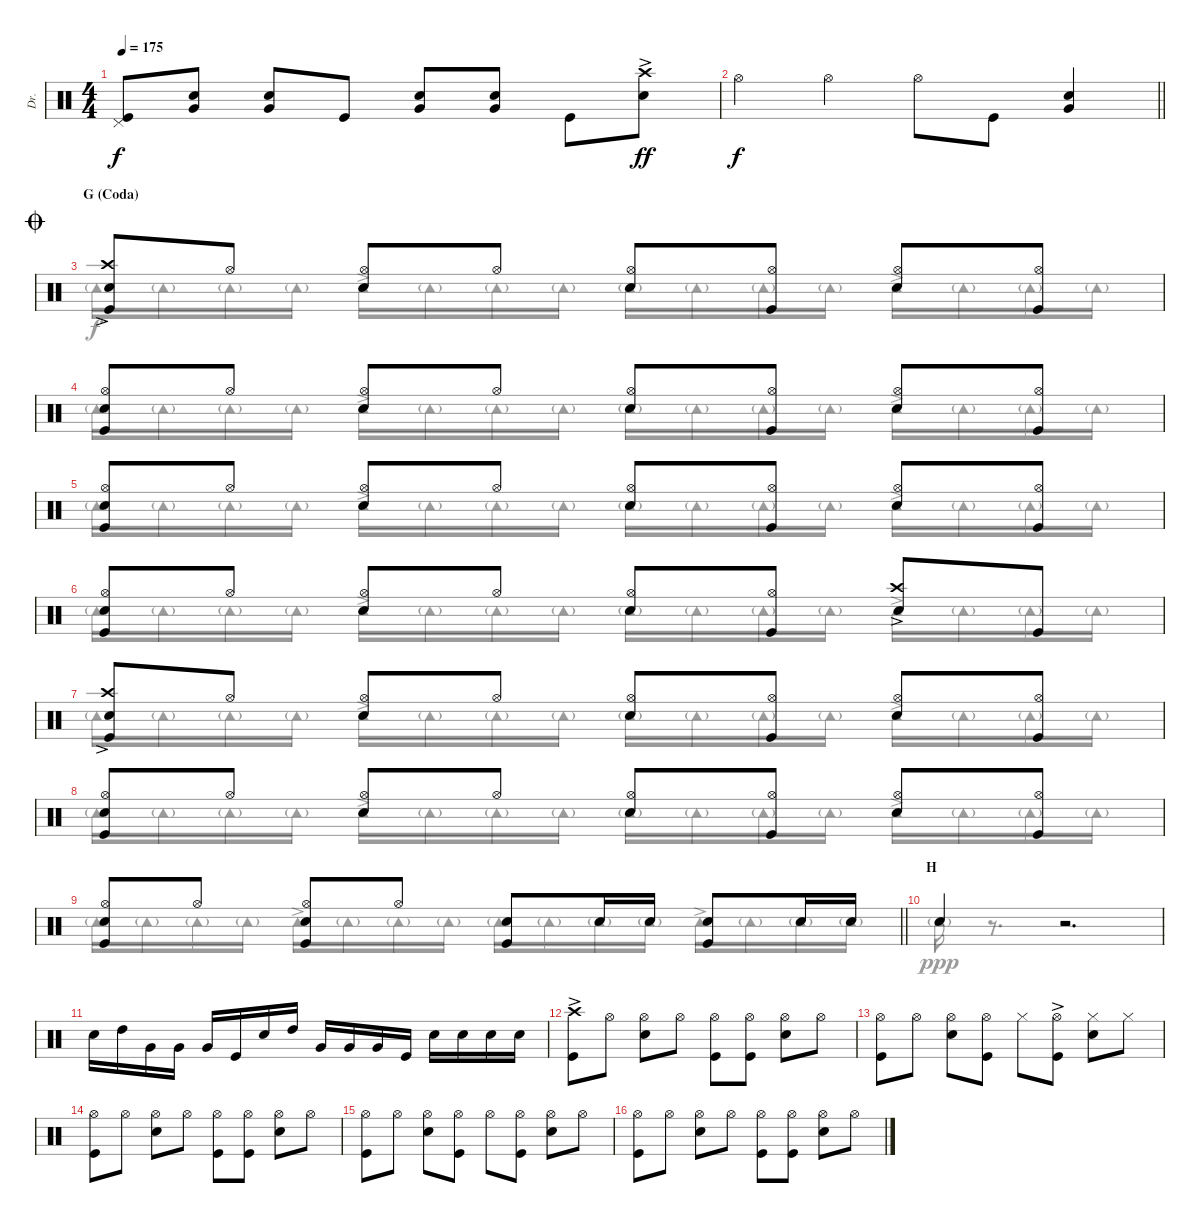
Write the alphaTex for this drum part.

\track ("Dr." "Dr.") {instrument percussion}
\staff {score}
\articulation defaults
\voice
\ts (4 4)
\tempo 175
\clef neutral
\ks c
("Pedal Hi-Hat (hit)" "Kick (hit)").8{dy f} ("Very Low Tom (hit)" "Snare (hit) 2").8 ("Very Low Tom (hit)" "Snare (hit) 2").8 "Kick (hit)".8 ("Very Low Tom (hit)" "Snare (hit) 2").8 ("Very Low Tom (hit)" "Snare (hit) 2").8 "Kick (hit)".8 ("Crash high (hit)"{ac} "Snare (hit) 2"{ac}).8{dy ff} |
\barLineRight lightlight "Hi-Hat (open)".4{dy f} "Hi-Hat (open)".4 "Hi-Hat (open)".8 "Kick (hit)".8
("Very Low Tom (hit)" "Snare (hit) 2").4 |
\section ("" "G (Coda)")
\jump coda
("Crash high (hit)"{ac} "Snare (hit) 2"{ac} "Kick (hit)"{ac}).8 "Hi-Hat (open)".8 ("Hi-Hat (open)" "Snare (hit) 2").8 "Hi-Hat (open)".8 ("Hi-Hat (open)" "Snare (hit) 2").8 ("Hi-Hat (open)" "Kick (hit)").8 ("Hi-Hat (open)" "Snare (hit) 2").8 ("Hi-Hat (open)" "Kick (hit)").8 |
("Hi-Hat (open)" "Snare (hit) 2" "Kick (hit)").8 "Hi-Hat (open)".8 ("Hi-Hat (open)" "Snare (hit) 2").8 "Hi-Hat (open)".8 ("Hi-Hat (open)" "Snare (hit) 2").8 ("Hi-Hat (open)" "Kick (hit)").8 ("Hi-Hat (open)" "Snare (hit) 2").8 ("Hi-Hat (open)" "Kick (hit)").8 |
("Hi-Hat (open)" "Snare (hit) 2" "Kick (hit)").8 "Hi-Hat (open)".8 ("Hi-Hat (open)" "Snare (hit) 2").8 "Hi-Hat (open)".8 ("Hi-Hat (open)" "Snare (hit) 2").8 ("Hi-Hat (open)" "Kick (hit)").8 ("Hi-Hat (open)" "Snare (hit) 2").8 ("Hi-Hat (open)" "Kick (hit)").8 |
("Hi-Hat (open)" "Snare (hit) 2" "Kick (hit)").8 "Hi-Hat (open)".8 ("Hi-Hat (open)" "Snare (hit) 2").8 "Hi-Hat (open)".8 ("Hi-Hat (open)" "Snare (hit) 2").8 ("Hi-Hat (open)" "Kick (hit)").8 ("Crash high (hit)"{ac} "Snare (hit) 2"{ac}).8 "Kick (hit)".8 |
("Crash high (hit)"{ac} "Snare (hit) 2"{ac} "Kick (hit)"{ac}).8 "Hi-Hat (open)".8 ("Hi-Hat (open)" "Snare (hit) 2").8 "Hi-Hat (open)".8 ("Hi-Hat (open)" "Snare (hit) 2").8 ("Hi-Hat (open)" "Kick (hit)").8 ("Hi-Hat (open)" "Snare (hit) 2").8 ("Hi-Hat (open)" "Kick (hit)").8 |
("Hi-Hat (open)" "Snare (hit) 2" "Kick (hit)").8 "Hi-Hat (open)".8 ("Hi-Hat (open)" "Snare (hit) 2").8 "Hi-Hat (open)".8 ("Hi-Hat (open)" "Snare (hit) 2").8 ("Hi-Hat (open)" "Kick (hit)").8 ("Hi-Hat (open)" "Snare (hit) 2").8 ("Hi-Hat (open)" "Kick (hit)").8 |
\barLineRight lightlight
("Hi-Hat (open)" "Snare (hit) 2" "Kick (hit)").8 "Hi-Hat (open)".8 ("Hi-Hat (open)" "Snare (hit) 2" "Kick (hit)").8 "Hi-Hat (open)".8 ("Snare (hit) 2" "Kick (hit)").8 "Snare (hit) 2".16 "Snare (hit) 2".16 ("Snare (hit) 2" "Kick (hit)").8 "Snare (hit) 2".16 "Snare (hit) 2".16 |
\section ("" "H")
"Snare (hit) 2".4 r.2{d} |
"Snare (hit) 2".16 "High Tom (hit)".16 "Very Low Tom (hit)".16 "Very Low Tom (hit)".16 "Very Low Tom (hit)".16 "Kick (hit)".16 "Snare (hit) 2".16 "High Tom (hit)".16 "Very Low Tom (hit)".16 "Very Low Tom (hit)".16 "Very Low Tom (hit)".16 "Kick (hit)".16 "Snare (hit) 2".16 "Snare (hit) 2".16 "Snare (hit) 2".16 "Snare (hit) 2".16 |
("Crash high (hit)"{ac} "Kick (hit)"{ac}).8 "Hi-Hat (open)".8 ("Hi-Hat (open)" "Snare (hit) 2").8 "Hi-Hat (open)".8 ("Hi-Hat (open)" "Kick (hit)").8 ("Hi-Hat (open)" "Kick (hit)").8 ("Hi-Hat (open)" "Snare (hit) 2").8 "Hi-Hat (open)".8 |
("Hi-Hat (open)" "Kick (hit)").8 "Hi-Hat (open)".8 ("Hi-Hat (open)" "Snare (hit) 2").8 ("Hi-Hat (open)" "Kick (hit)").8 "Hi-Hat (closed)".8 ("Hi-Hat (open)"{ac} "Kick (hit)").8 ("Hi-Hat (closed)" "Snare (hit) 2").8 "Hi-Hat (closed)".8 |
("Hi-Hat (open)" "Kick (hit)").8 "Hi-Hat (open)".8 ("Hi-Hat (open)" "Snare (hit) 2").8 "Hi-Hat (open)".8 ("Hi-Hat (open)" "Kick (hit)").8 ("Hi-Hat (open)" "Kick (hit)").8 ("Hi-Hat (open)" "Snare (hit) 2").8 "Hi-Hat (open)".8 |
("Hi-Hat (open)" "Kick (hit)").8 "Hi-Hat (open)".8 ("Hi-Hat (open)" "Snare (hit) 2").8 ("Hi-Hat (open)" "Kick (hit)").8 "Hi-Hat (open)".8 ("Hi-Hat (open)" "Kick (hit)").8 ("Hi-Hat (open)" "Snare (hit) 2").8 "Hi-Hat (open)".8 |
("Hi-Hat (open)" "Kick (hit)").8 "Hi-Hat (open)".8 ("Hi-Hat (open)" "Snare (hit) 2").8 "Hi-Hat (open)".8 ("Hi-Hat (open)" "Kick (hit)").8 ("Hi-Hat (open)" "Kick (hit)").8 ("Hi-Hat (open)" "Snare (hit) 2").8 "Hi-Hat (open)".8
\voice
\clef neutral
\ottava regular
\simile none
\ks c
|
\barLineRight lightlight
|
"Tambourine (hit)"{g}.16 "Tambourine (hit)"{g}.16 "Tambourine (hit)"{g}.16 "Tambourine (hit)"{g}.16 "Tambourine (hit)"{ac}.16 "Tambourine (hit)"{g}.16 "Tambourine (hit)"{g}.16 "Tambourine (hit)"{g}.16 "Tambourine (hit)"{g}.16 "Tambourine (hit)"{g}.16 "Tambourine (hit)"{g}.16 "Tambourine (hit)"{g}.16 "Tambourine (hit)"{ac}.16 "Tambourine (hit)"{g}.16 "Tambourine (hit)"{g}.16 "Tambourine (hit)"{g}.16 |
"Tambourine (hit)"{g}.16 "Tambourine (hit)"{g}.16 "Tambourine (hit)"{g}.16 "Tambourine (hit)"{g}.16 "Tambourine (hit)"{ac}.16 "Tambourine (hit)"{g}.16 "Tambourine (hit)"{g}.16 "Tambourine (hit)"{g}.16 "Tambourine (hit)"{g}.16 "Tambourine (hit)"{g}.16 "Tambourine (hit)"{g}.16 "Tambourine (hit)"{g}.16 "Tambourine (hit)"{ac}.16 "Tambourine (hit)"{g}.16 "Tambourine (hit)"{g}.16 "Tambourine (hit)"{g}.16 |
"Tambourine (hit)"{g}.16 "Tambourine (hit)"{g}.16 "Tambourine (hit)"{g}.16 "Tambourine (hit)"{g}.16 "Tambourine (hit)"{ac}.16 "Tambourine (hit)"{g}.16 "Tambourine (hit)"{g}.16 "Tambourine (hit)"{g}.16 "Tambourine (hit)"{g}.16 "Tambourine (hit)"{g}.16 "Tambourine (hit)"{g}.16 "Tambourine (hit)"{g}.16 "Tambourine (hit)"{ac}.16 "Tambourine (hit)"{g}.16 "Tambourine (hit)"{g}.16 "Tambourine (hit)"{g}.16 |
"Tambourine (hit)"{g}.16 "Tambourine (hit)"{g}.16 "Tambourine (hit)"{g}.16 "Tambourine (hit)"{g}.16 "Tambourine (hit)"{ac}.16 "Tambourine (hit)"{g}.16 "Tambourine (hit)"{g}.16 "Tambourine (hit)"{g}.16 "Tambourine (hit)"{g}.16 "Tambourine (hit)"{g}.16 "Tambourine (hit)"{g}.16 "Tambourine (hit)"{g}.16 "Tambourine (hit)"{ac}.16 "Tambourine (hit)"{g}.16 "Tambourine (hit)"{g}.16 "Tambourine (hit)"{g}.16 |
"Tambourine (hit)"{g}.16 "Tambourine (hit)"{g}.16 "Tambourine (hit)"{g}.16 "Tambourine (hit)"{g}.16 "Tambourine (hit)"{ac}.16 "Tambourine (hit)"{g}.16 "Tambourine (hit)"{g}.16 "Tambourine (hit)"{g}.16 "Tambourine (hit)"{g}.16 "Tambourine (hit)"{g}.16 "Tambourine (hit)"{g}.16 "Tambourine (hit)"{g}.16 "Tambourine (hit)"{ac}.16 "Tambourine (hit)"{g}.16 "Tambourine (hit)"{g}.16 "Tambourine (hit)"{g}.16 |
"Tambourine (hit)"{g}.16 "Tambourine (hit)"{g}.16 "Tambourine (hit)"{g}.16 "Tambourine (hit)"{g}.16 "Tambourine (hit)"{ac}.16 "Tambourine (hit)"{g}.16 "Tambourine (hit)"{g}.16 "Tambourine (hit)"{g}.16 "Tambourine (hit)"{g}.16 "Tambourine (hit)"{g}.16 "Tambourine (hit)"{g}.16 "Tambourine (hit)"{g}.16 "Tambourine (hit)"{ac}.16 "Tambourine (hit)"{g}.16 "Tambourine (hit)"{g}.16 "Tambourine (hit)"{g}.16 |
\barLineRight lightlight "Tambourine (hit)"{g}.16 "Tambourine (hit)"{g}.16 "Tambourine (hit)"{g}.16 "Tambourine (hit)"{g}.16 "Tambourine (hit)"{ac}.16 "Tambourine (hit)"{g}.16 "Tambourine (hit)"{g}.16 "Tambourine (hit)"{g}.16 "Tambourine (hit)"{g}.16 "Tambourine (hit)"{g}.16 "Tambourine (hit)"{g}.16 "Tambourine (hit)"{g}.16 "Tambourine (hit)"{ac}.16 "Tambourine (hit)"{g}.16 "Tambourine (hit)"{g}.16 "Tambourine (hit)"{g}.16
|
"Tambourine (hit)"{g}.16{dy ppp} r.8{d} r.2{d} |
|
|
|
|
|
